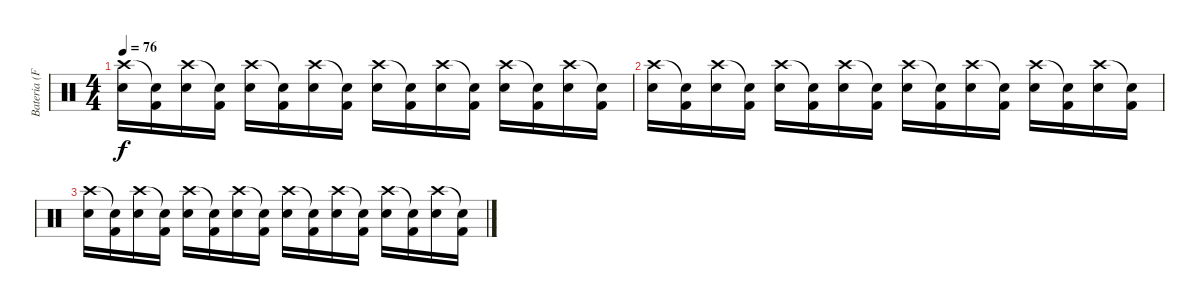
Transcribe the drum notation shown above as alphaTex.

\track ("Bateria (Fê Lemos)" "Bateria (F") {instrument percussion}
\staff {score}
\articulation defaults
\ts (4 4)
\tempo 76
\clef neutral
\ks c
("Crash high (hit)" "Electric Snare (hit)").16{dy f} ("Snare (hit)"{t} "Kick (hit) 2").16 ("Crash high (hit)" "Electric Snare (hit)").16 ("Snare (hit)"{t} "Kick (hit) 2").16 ("Crash high (hit)" "Electric Snare (hit)").16 ("Snare (hit)"{t} "Kick (hit) 2").16 ("Crash high (hit)" "Electric Snare (hit)").16 ("Snare (hit)"{t} "Kick (hit) 2").16 ("Crash high (hit)" "Electric Snare (hit)").16 ("Snare (hit)"{t} "Kick (hit) 2").16 ("Crash high (hit)" "Electric Snare (hit)").16 ("Snare (hit)"{t} "Kick (hit) 2").16 ("Crash high (hit)" "Electric Snare (hit)").16 ("Snare (hit)"{t} "Kick (hit) 2").16 ("Crash high (hit)" "Electric Snare (hit)").16 ("Snare (hit)"{t} "Kick (hit) 2").16 |
("Crash high (hit)" "Electric Snare (hit)").16 ("Snare (hit)"{t} "Kick (hit) 2").16 ("Crash high (hit)" "Electric Snare (hit)").16 ("Snare (hit)"{t} "Kick (hit) 2").16 ("Crash high (hit)" "Electric Snare (hit)").16 ("Snare (hit)"{t} "Kick (hit) 2").16 ("Crash high (hit)" "Electric Snare (hit)").16 ("Snare (hit)"{t} "Kick (hit) 2").16 ("Crash high (hit)" "Electric Snare (hit)").16 ("Snare (hit)"{t} "Kick (hit) 2").16 ("Crash high (hit)" "Electric Snare (hit)").16 ("Snare (hit)"{t} "Kick (hit) 2").16 ("Crash high (hit)" "Electric Snare (hit)").16 ("Snare (hit)"{t} "Kick (hit) 2").16 ("Crash high (hit)" "Electric Snare (hit)").16 ("Snare (hit)"{t} "Kick (hit) 2").16 |
("Crash high (hit)" "Electric Snare (hit)").16 ("Snare (hit)"{t} "Kick (hit) 2").16 ("Crash high (hit)" "Electric Snare (hit)").16 ("Snare (hit)"{t} "Kick (hit) 2").16 ("Crash high (hit)" "Electric Snare (hit)").16 ("Snare (hit)"{t} "Kick (hit) 2").16 ("Crash high (hit)" "Electric Snare (hit)").16 ("Snare (hit)"{t} "Kick (hit) 2").16 ("Crash high (hit)" "Electric Snare (hit)").16 ("Snare (hit)"{t} "Kick (hit) 2").16 ("Crash high (hit)" "Electric Snare (hit)").16 ("Snare (hit)"{t} "Kick (hit) 2").16 ("Crash high (hit)" "Electric Snare (hit)").16 ("Snare (hit)"{t} "Kick (hit) 2").16 ("Crash high (hit)" "Electric Snare (hit)").16 ("Snare (hit)"{t} "Kick (hit) 2").16
